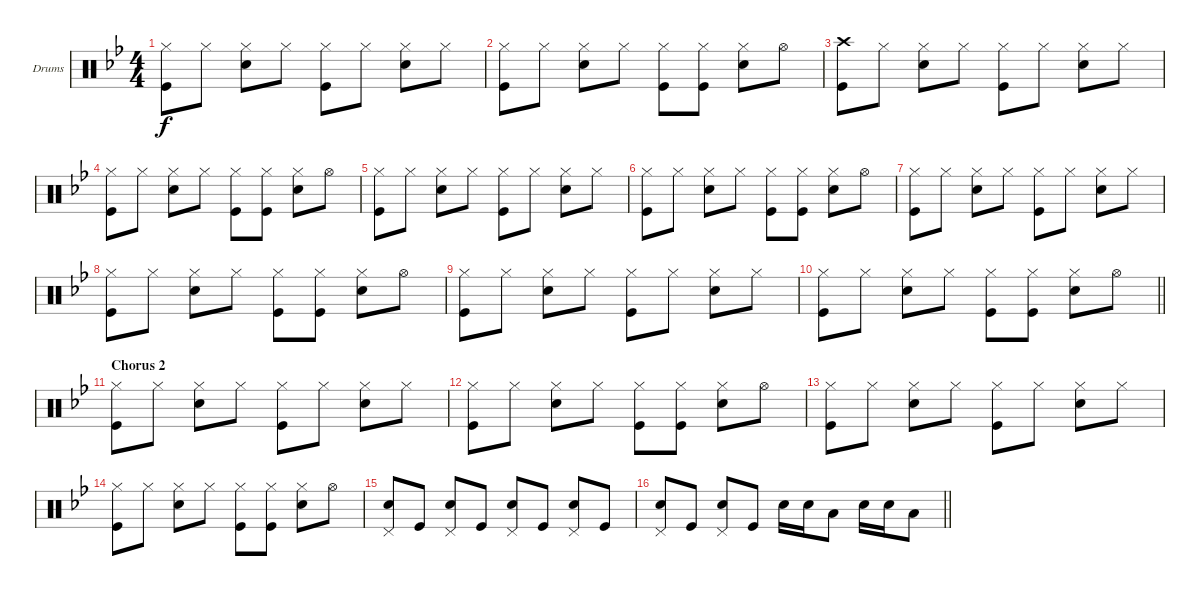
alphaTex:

\bracketExtendMode groupsimilarinstruments
\firstSystemTrackNameOrientation horizontal
\otherSystemsTrackNameOrientation horizontal
\track ("Drumkit" "Drums") {instrument percussion}
\staff {score}
\articulation defaults
\ts (4 4)
\tempo (82 hide)
\clef neutral
\ks gminor
("Hi-Hat (closed)" "Kick (hit)").8{dy f} "Hi-Hat (closed)".8 ("Hi-Hat (closed)" "Snare (hit) 2").8 "Hi-Hat (closed)".8 ("Hi-Hat (closed)" "Kick (hit)").8 "Hi-Hat (closed)".8 ("Hi-Hat (closed)" "Snare (hit) 2").8 "Hi-Hat (closed)".8 |
("Hi-Hat (closed)" "Kick (hit)").8 "Hi-Hat (closed)".8 ("Hi-Hat (closed)" "Snare (hit) 2").8 "Hi-Hat (closed)".8 ("Hi-Hat (closed)" "Kick (hit)").8 ("Hi-Hat (closed)" "Kick (hit)").8 ("Hi-Hat (closed)" "Snare (hit) 2").8 "Hi-Hat (open)".8 |
("Crash high (hit)" "Kick (hit)").8 "Hi-Hat (closed)".8 ("Hi-Hat (closed)" "Snare (hit) 2").8 "Hi-Hat (closed)".8 ("Hi-Hat (closed)" "Kick (hit)").8 "Hi-Hat (closed)".8 ("Hi-Hat (closed)" "Snare (hit) 2").8 "Hi-Hat (closed)".8 |
("Hi-Hat (closed)" "Kick (hit)").8 "Hi-Hat (closed)".8 ("Hi-Hat (closed)" "Snare (hit) 2").8 "Hi-Hat (closed)".8 ("Hi-Hat (closed)" "Kick (hit)").8 ("Hi-Hat (closed)" "Kick (hit)").8 ("Hi-Hat (closed)" "Snare (hit) 2").8 "Hi-Hat (open)".8 |
("Hi-Hat (closed)" "Kick (hit)").8 "Hi-Hat (closed)".8 ("Hi-Hat (closed)" "Snare (hit) 2").8 "Hi-Hat (closed)".8 ("Hi-Hat (closed)" "Kick (hit)").8 "Hi-Hat (closed)".8 ("Hi-Hat (closed)" "Snare (hit) 2").8 "Hi-Hat (closed)".8 |
("Hi-Hat (closed)" "Kick (hit)").8 "Hi-Hat (closed)".8 ("Hi-Hat (closed)" "Snare (hit) 2").8 "Hi-Hat (closed)".8 ("Hi-Hat (closed)" "Kick (hit)").8 ("Hi-Hat (closed)" "Kick (hit)").8 ("Hi-Hat (closed)" "Snare (hit) 2").8 "Hi-Hat (open)".8 |
("Hi-Hat (closed)" "Kick (hit)").8 "Hi-Hat (closed)".8 ("Hi-Hat (closed)" "Snare (hit) 2").8 "Hi-Hat (closed)".8 ("Hi-Hat (closed)" "Kick (hit)").8 "Hi-Hat (closed)".8 ("Hi-Hat (closed)" "Snare (hit) 2").8 "Hi-Hat (closed)".8 |
("Hi-Hat (closed)" "Kick (hit)").8 "Hi-Hat (closed)".8 ("Hi-Hat (closed)" "Snare (hit) 2").8 "Hi-Hat (closed)".8 ("Hi-Hat (closed)" "Kick (hit)").8 ("Hi-Hat (closed)" "Kick (hit)").8 ("Hi-Hat (closed)" "Snare (hit) 2").8 "Hi-Hat (open)".8 |
("Hi-Hat (closed)" "Kick (hit)").8 "Hi-Hat (closed)".8 ("Hi-Hat (closed)" "Snare (hit) 2").8 "Hi-Hat (closed)".8 ("Hi-Hat (closed)" "Kick (hit)").8 "Hi-Hat (closed)".8 ("Hi-Hat (closed)" "Snare (hit) 2").8 "Hi-Hat (closed)".8 |
\barLineRight lightlight
("Hi-Hat (closed)" "Kick (hit)").8 "Hi-Hat (closed)".8 ("Hi-Hat (closed)" "Snare (hit) 2").8 "Hi-Hat (closed)".8 ("Hi-Hat (closed)" "Kick (hit)").8 ("Hi-Hat (closed)" "Kick (hit)").8 ("Hi-Hat (closed)" "Snare (hit) 2").8 "Hi-Hat (open)".8 |
\section ("" "Chorus 2")
("Hi-Hat (closed)" "Kick (hit)").8 "Hi-Hat (closed)".8 ("Hi-Hat (closed)" "Snare (hit) 2").8 "Hi-Hat (closed)".8 ("Hi-Hat (closed)" "Kick (hit)").8 "Hi-Hat (closed)".8 ("Hi-Hat (closed)" "Snare (hit) 2").8 "Hi-Hat (closed)".8 |
("Hi-Hat (closed)" "Kick (hit)").8 "Hi-Hat (closed)".8 ("Hi-Hat (closed)" "Snare (hit) 2").8 "Hi-Hat (closed)".8 ("Hi-Hat (closed)" "Kick (hit)").8 ("Hi-Hat (closed)" "Kick (hit)").8 ("Hi-Hat (closed)" "Snare (hit) 2").8 "Hi-Hat (open)".8 |
("Hi-Hat (closed)" "Kick (hit)").8 "Hi-Hat (closed)".8 ("Hi-Hat (closed)" "Snare (hit) 2").8 "Hi-Hat (closed)".8 ("Hi-Hat (closed)" "Kick (hit)").8 "Hi-Hat (closed)".8 ("Hi-Hat (closed)" "Snare (hit) 2").8 "Hi-Hat (closed)".8 |
("Hi-Hat (closed)" "Kick (hit)").8 "Hi-Hat (closed)".8 ("Hi-Hat (closed)" "Snare (hit) 2").8 "Hi-Hat (closed)".8 ("Hi-Hat (closed)" "Kick (hit)").8 ("Hi-Hat (closed)" "Kick (hit)").8 ("Hi-Hat (closed)" "Snare (hit) 2").8 "Hi-Hat (open)".8 |
("Pedal Hi-Hat (hit)" "Snare (hit) 2").8 "Kick (hit)".8 ("Pedal Hi-Hat (hit)" "Snare (hit) 2").8 "Kick (hit)".8 ("Pedal Hi-Hat (hit)" "Snare (hit) 2").8 "Kick (hit)".8 ("Pedal Hi-Hat (hit)" "Snare (hit) 2").8 "Kick (hit)".8 |
\barLineRight lightlight
("Pedal Hi-Hat (hit)" "Snare (hit) 2").8 "Kick (hit)".8 ("Pedal Hi-Hat (hit)" "Snare (hit) 2").8 "Kick (hit)".8 "Snare (hit) 2".16 "Snare (hit) 2".16 "Low Tom (hit)".8 "Snare (hit) 2".16 "Snare (hit) 2".16 "Low Tom (hit)".8
